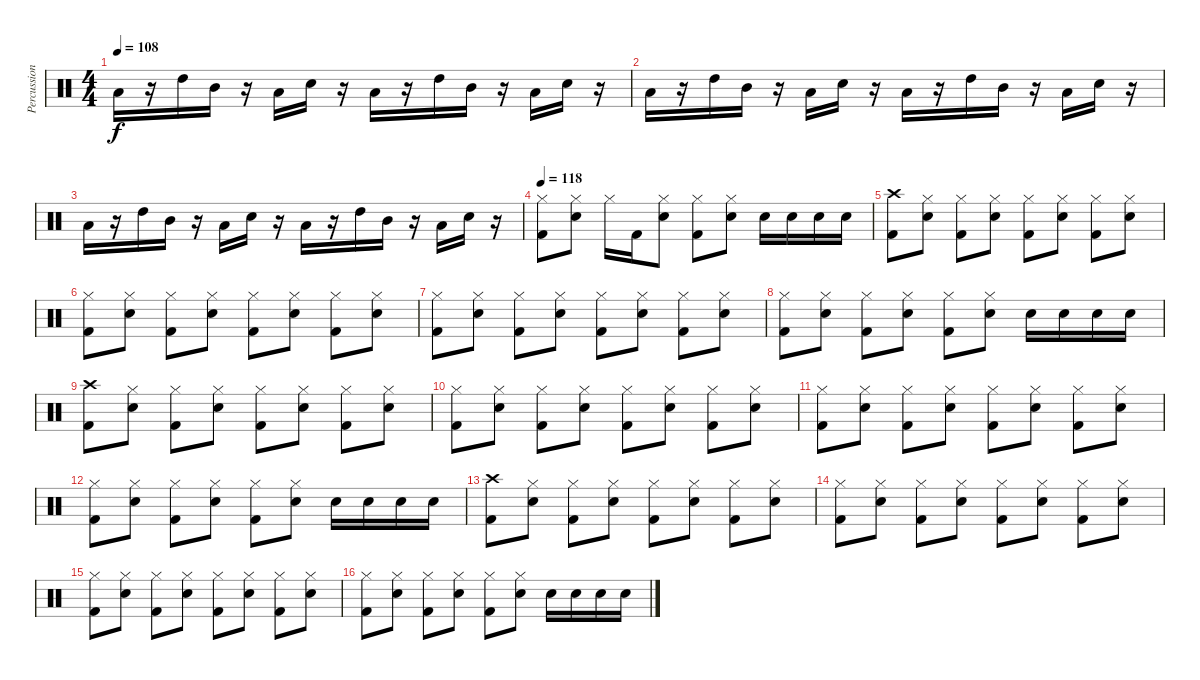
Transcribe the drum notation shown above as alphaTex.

\track ("Percussion" "Percussion") {instrument percussion}
\staff {score}
\articulation defaults
\ts (4 4)
\tempo 108
\clef neutral
\ks c "Low Tom (hit)".16{dy f}
r.16 "High Tom (hit)".16 "Mid Tom (hit)".16 r.16 "Low Tom (hit)".16 "Snare (hit) 2".16 r.16 "Low Tom (hit)".16 r.16 "High Tom (hit)".16 "Mid Tom (hit)".16 r.16 "Low Tom (hit)".16 "Snare (hit) 2".16 r.16 |
"Low Tom (hit)".16 r.16 "High Tom (hit)".16 "Mid Tom (hit)".16 r.16 "Low Tom (hit)".16 "Snare (hit) 2".16 r.16 "Low Tom (hit)".16 r.16 "High Tom (hit)".16 "Mid Tom (hit)".16 r.16 "Low Tom (hit)".16 "Snare (hit) 2".16 r.16 |
"Low Tom (hit)".16 r.16 "High Tom (hit)".16 "Mid Tom (hit)".16 r.16 "Low Tom (hit)".16 "Snare (hit) 2".16 r.16 "Low Tom (hit)".16 r.16 "High Tom (hit)".16 "Mid Tom (hit)".16 r.16 "Low Tom (hit)".16 "Snare (hit) 2".16 r.16 |
\tempo 118
("Hi-Hat (closed)" "Kick (hit) 2").8 ("Hi-Hat (closed)" "Snare (hit) 2").8 "Hi-Hat (closed)".16 "Kick (hit) 2".16 ("Hi-Hat (closed)" "Snare (hit) 2").8 ("Hi-Hat (closed)" "Kick (hit) 2").8 ("Hi-Hat (closed)" "Snare (hit) 2").8 "Snare (hit) 2".16 "Snare (hit) 2".16 "Snare (hit) 2".16 "Snare (hit) 2".16 |
("Crash high (hit)" "Kick (hit) 2").8 ("Hi-Hat (closed)" "Snare (hit) 2").8 ("Hi-Hat (closed)" "Kick (hit) 2").8 ("Hi-Hat (closed)" "Snare (hit) 2").8 ("Hi-Hat (closed)" "Kick (hit) 2").8 ("Hi-Hat (closed)" "Snare (hit) 2").8 ("Hi-Hat (closed)" "Kick (hit) 2").8 ("Hi-Hat (closed)" "Snare (hit) 2").8 |
("Hi-Hat (closed)" "Kick (hit) 2").8 ("Hi-Hat (closed)" "Snare (hit) 2").8 ("Hi-Hat (closed)" "Kick (hit) 2").8 ("Hi-Hat (closed)" "Snare (hit) 2").8 ("Hi-Hat (closed)" "Kick (hit) 2").8 ("Hi-Hat (closed)" "Snare (hit) 2").8 ("Hi-Hat (closed)" "Kick (hit) 2").8 ("Hi-Hat (closed)" "Snare (hit) 2").8 |
("Hi-Hat (closed)" "Kick (hit) 2").8 ("Hi-Hat (closed)" "Snare (hit) 2").8 ("Hi-Hat (closed)" "Kick (hit) 2").8 ("Hi-Hat (closed)" "Snare (hit) 2").8 ("Hi-Hat (closed)" "Kick (hit) 2").8 ("Hi-Hat (closed)" "Snare (hit) 2").8 ("Hi-Hat (closed)" "Kick (hit) 2").8 ("Hi-Hat (closed)" "Snare (hit) 2").8 |
("Hi-Hat (closed)" "Kick (hit) 2").8 ("Hi-Hat (closed)" "Snare (hit) 2").8 ("Hi-Hat (closed)" "Kick (hit) 2").8 ("Hi-Hat (closed)" "Snare (hit) 2").8 ("Hi-Hat (closed)" "Kick (hit) 2").8 ("Hi-Hat (closed)" "Snare (hit) 2").8 "Snare (hit) 2".16 "Snare (hit) 2".16 "Snare (hit) 2".16 "Snare (hit) 2".16 |
("Crash high (hit)" "Kick (hit) 2").8 ("Hi-Hat (closed)" "Snare (hit) 2").8 ("Hi-Hat (closed)" "Kick (hit) 2").8 ("Hi-Hat (closed)" "Snare (hit) 2").8 ("Hi-Hat (closed)" "Kick (hit) 2").8 ("Hi-Hat (closed)" "Snare (hit) 2").8 ("Hi-Hat (closed)" "Kick (hit) 2").8 ("Hi-Hat (closed)" "Snare (hit) 2").8 |
("Hi-Hat (closed)" "Kick (hit) 2").8 ("Hi-Hat (closed)" "Snare (hit) 2").8 ("Hi-Hat (closed)" "Kick (hit) 2").8 ("Hi-Hat (closed)" "Snare (hit) 2").8 ("Hi-Hat (closed)" "Kick (hit) 2").8 ("Hi-Hat (closed)" "Snare (hit) 2").8 ("Hi-Hat (closed)" "Kick (hit) 2").8 ("Hi-Hat (closed)" "Snare (hit) 2").8 |
("Hi-Hat (closed)" "Kick (hit) 2").8 ("Hi-Hat (closed)" "Snare (hit) 2").8 ("Hi-Hat (closed)" "Kick (hit) 2").8 ("Hi-Hat (closed)" "Snare (hit) 2").8 ("Hi-Hat (closed)" "Kick (hit) 2").8 ("Hi-Hat (closed)" "Snare (hit) 2").8 ("Hi-Hat (closed)" "Kick (hit) 2").8 ("Hi-Hat (closed)" "Snare (hit) 2").8 |
("Hi-Hat (closed)" "Kick (hit) 2").8 ("Hi-Hat (closed)" "Snare (hit) 2").8 ("Hi-Hat (closed)" "Kick (hit) 2").8 ("Hi-Hat (closed)" "Snare (hit) 2").8 ("Hi-Hat (closed)" "Kick (hit) 2").8 ("Hi-Hat (closed)" "Snare (hit) 2").8 "Snare (hit) 2".16 "Snare (hit) 2".16 "Snare (hit) 2".16 "Snare (hit) 2".16 |
("Crash high (hit)" "Kick (hit) 2").8 ("Hi-Hat (closed)" "Snare (hit) 2").8 ("Hi-Hat (closed)" "Kick (hit) 2").8 ("Hi-Hat (closed)" "Snare (hit) 2").8 ("Hi-Hat (closed)" "Kick (hit) 2").8 ("Hi-Hat (closed)" "Snare (hit) 2").8 ("Hi-Hat (closed)" "Kick (hit) 2").8 ("Hi-Hat (closed)" "Snare (hit) 2").8 |
("Hi-Hat (closed)" "Kick (hit) 2").8 ("Hi-Hat (closed)" "Snare (hit) 2").8 ("Hi-Hat (closed)" "Kick (hit) 2").8 ("Hi-Hat (closed)" "Snare (hit) 2").8 ("Hi-Hat (closed)" "Kick (hit) 2").8 ("Hi-Hat (closed)" "Snare (hit) 2").8 ("Hi-Hat (closed)" "Kick (hit) 2").8 ("Hi-Hat (closed)" "Snare (hit) 2").8 |
("Hi-Hat (closed)" "Kick (hit) 2").8 ("Hi-Hat (closed)" "Snare (hit) 2").8 ("Hi-Hat (closed)" "Kick (hit) 2").8 ("Hi-Hat (closed)" "Snare (hit) 2").8 ("Hi-Hat (closed)" "Kick (hit) 2").8 ("Hi-Hat (closed)" "Snare (hit) 2").8 ("Hi-Hat (closed)" "Kick (hit) 2").8 ("Hi-Hat (closed)" "Snare (hit) 2").8 |
("Hi-Hat (closed)" "Kick (hit) 2").8 ("Hi-Hat (closed)" "Snare (hit) 2").8 ("Hi-Hat (closed)" "Kick (hit) 2").8 ("Hi-Hat (closed)" "Snare (hit) 2").8 ("Hi-Hat (closed)" "Kick (hit) 2").8 ("Hi-Hat (closed)" "Snare (hit) 2").8 "Snare (hit) 2".16 "Snare (hit) 2".16 "Snare (hit) 2".16 "Snare (hit) 2".16
